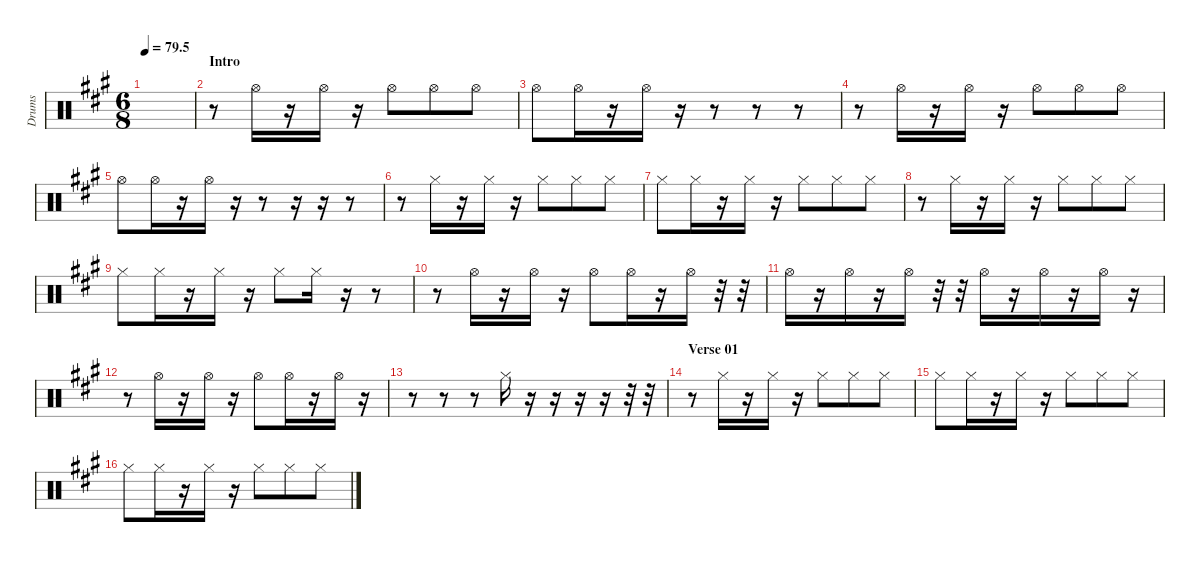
\defaultSystemsLayout 4
\hideDynamics
\bracketExtendMode nobrackets
\otherSystemsTrackNameOrientation horizontal
\track ("Hihat" "Drums") {instrument percussion}
\staff {score}
\articulation defaults
\ts (6 8)
\tempo
79.5
\accidentals auto
\clef neutral
\ottava regular
\simile none
\scale
0.474178
\ks a
|
\section ("" "Intro")
\scale
0.262911 r.8 "Hi-Hat (open)"{acc forcenatural}.16 r.16 "Hi-Hat (open)"{acc forcenatural}.16 r.16 "Hi-Hat (open)"{acc forcenatural}.8 "Hi-Hat (open)"{acc forcenatural}.8 "Hi-Hat (open)"{acc forcenatural}.8 |
\scale
0.262911 "Hi-Hat (open)"{acc forcenatural}.8 "Hi-Hat (open)"{acc forcenatural}.16 r.16 "Hi-Hat (open)"{acc forcenatural}.16 r.16 r.8 r.8 r.8 |
\scale
0.333333 r.8 "Hi-Hat (open)"{acc forcenatural}.16 r.16 "Hi-Hat (open)"{acc forcenatural}.16 r.16 "Hi-Hat (open)"{acc forcenatural}.8 "Hi-Hat (open)"{acc forcenatural}.8 "Hi-Hat (open)"{acc forcenatural}.8 |
\scale
0.333333 "Hi-Hat (open)"{acc forcenatural}.8 "Hi-Hat (open)"{acc forcenatural}.16 r.16 "Hi-Hat (open)"{acc forcenatural}.16 r.16 r.8 r.16 r.16 r.8 |
\scale
0.333333 r.8 "Hi-Hat (closed)"{acc forcenatural}.16 r.16 "Hi-Hat (closed)"{acc forcenatural}.16 r.16 "Hi-Hat (closed)"{acc forcenatural}.8 "Hi-Hat (closed)"{acc forcenatural}.8 "Hi-Hat (closed)"{acc forcenatural}.8 |
\scale
0.333333 "Hi-Hat (closed)"{acc forcenatural}.8 "Hi-Hat (closed)"{acc forcenatural}.16 r.16 "Hi-Hat (closed)"{acc forcenatural}.16 r.16 "Hi-Hat (closed)"{acc forcenatural}.8 "Hi-Hat (closed)"{acc forcenatural}.8 "Hi-Hat (closed)"{acc forcenatural}.8 |
\scale
0.333333 r.8 "Hi-Hat (closed)"{acc forcenatural}.16 r.16 "Hi-Hat (closed)"{acc forcenatural}.16 r.16 "Hi-Hat (closed)"{acc forcenatural}.8 "Hi-Hat (closed)"{acc forcenatural}.8 "Hi-Hat (closed)"{acc forcenatural}.8 |
\scale
0.333333 "Hi-Hat (closed)"{acc forcenatural}.8 "Hi-Hat (closed)"{acc forcenatural}.16 r.16 "Hi-Hat (closed)"{acc forcenatural}.16 r.16 "Hi-Hat (closed)"{acc forcenatural}.8 "Hi-Hat (closed)"{acc forcenatural}.16 r.16 r.8 |
\scale
0.333333 r.8 "Hi-Hat (open)"{acc forcenatural}.16 r.16 "Hi-Hat (open)"{acc forcenatural}.16 r.16 "Hi-Hat (open)"{acc forcenatural}.8 "Hi-Hat (open)"{acc forcenatural}.16 r.16 "Hi-Hat (open)"{acc forcenatural}.16 r.32 r.32 |
\scale
0.333333 "Hi-Hat (open)"{acc forcenatural}.16 r.16 "Hi-Hat (open)"{acc forcenatural}.16 r.16 "Hi-Hat (open)"{acc forcenatural}.16 r.32 r.32 "Hi-Hat (open)"{acc forcenatural}.16 r.16 "Hi-Hat (open)"{acc forcenatural}.16 r.16 "Hi-Hat (open)"{acc forcenatural}.16 r.16 |
\scale
0.333333 r.8 "Hi-Hat (open)"{acc forcenatural}.16 r.16 "Hi-Hat (open)"{acc forcenatural}.16 r.16 "Hi-Hat (open)"{acc forcenatural}.8 "Hi-Hat (open)"{acc forcenatural}.16 r.16 "Hi-Hat (open)"{acc forcenatural}.16 r.16 |
\scale
0.333333 r.8 r.8 r.8 "Hi-Hat (closed)"{acc forcenatural}.16 r.16 r.16 r.16 r.16 r.32 r.32 |
\section ("" "Verse 01")
\scale
0.333333 r.8 "Hi-Hat (closed)"{acc forcenatural}.16 r.16 "Hi-Hat (closed)"{acc forcenatural}.16 r.16 "Hi-Hat (closed)"{acc forcenatural}.8 "Hi-Hat (closed)"{acc forcenatural}.8 "Hi-Hat (closed)"{acc forcenatural}.8 |
\scale
0.333333 "Hi-Hat (closed)"{acc forcenatural}.8 "Hi-Hat (closed)"{acc forcenatural}.16 r.16 "Hi-Hat (closed)"{acc forcenatural}.16 r.16 "Hi-Hat (closed)"{acc forcenatural}.8 "Hi-Hat (closed)"{acc forcenatural}.8 "Hi-Hat (closed)"{acc forcenatural}.8 |
\scale
0.333333 "Hi-Hat (closed)"{acc forcenatural}.8 "Hi-Hat (closed)"{acc forcenatural}.16 r.16 "Hi-Hat (closed)"{acc forcenatural}.16 r.16 "Hi-Hat (closed)"{acc forcenatural}.8 "Hi-Hat (closed)"{acc forcenatural}.8 "Hi-Hat (closed)"{acc forcenatural}.8
